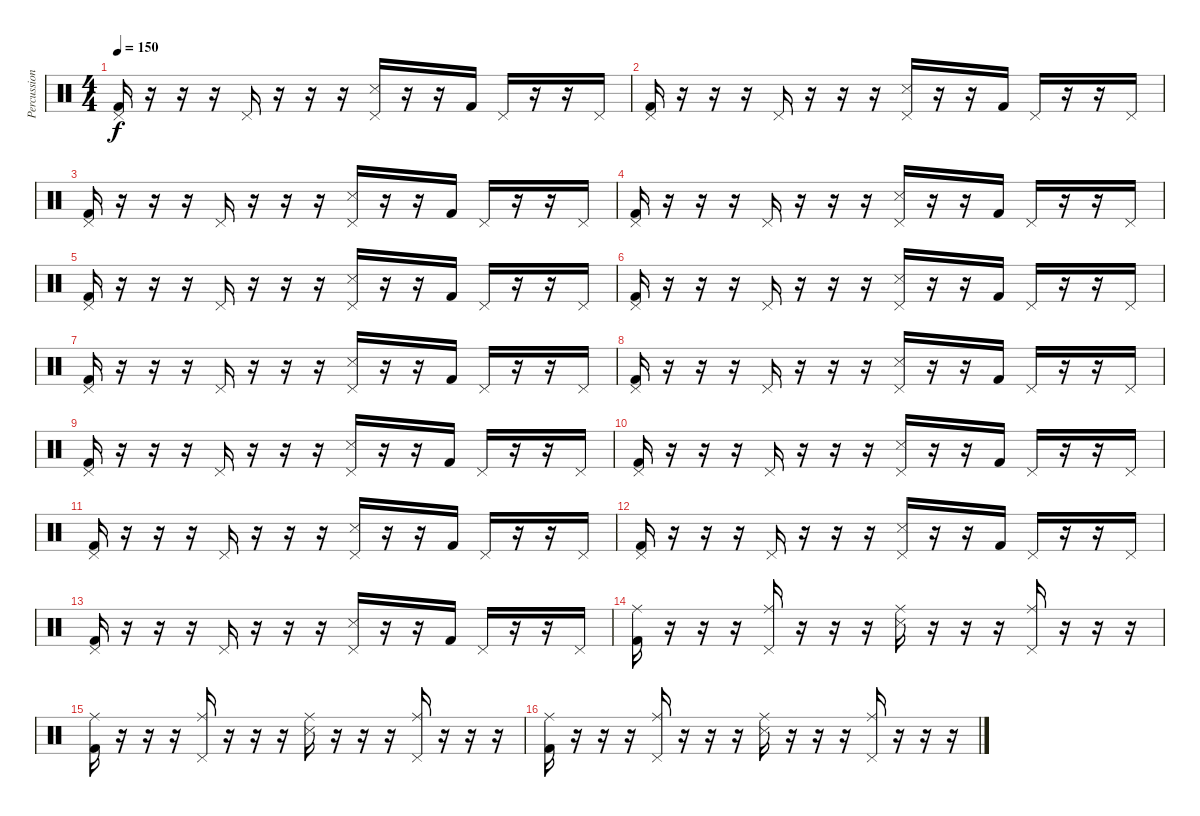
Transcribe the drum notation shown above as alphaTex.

\track ("Percussion" "Percussion") {instrument percussion}
\staff {score}
\articulation defaults
\ts (4 4)
\tempo 150
\clef neutral
\ks c
("Pedal Hi-Hat (hit)" "Kick (hit) 2").16{dy f} r.16 r.16 r.16 "Pedal Hi-Hat (hit)".16 r.16 r.16 r.16 ("Pedal Hi-Hat (hit)" "Snare (side stick) 3").16 r.16 r.16 "Kick (hit) 2".16 "Pedal Hi-Hat (hit)".16 r.16 r.16 "Pedal Hi-Hat (hit)".16 |
("Pedal Hi-Hat (hit)" "Kick (hit) 2").16 r.16 r.16 r.16 "Pedal Hi-Hat (hit)".16 r.16 r.16 r.16 ("Pedal Hi-Hat (hit)" "Snare (side stick) 3").16 r.16 r.16 "Kick (hit) 2".16 "Pedal Hi-Hat (hit)".16 r.16 r.16 "Pedal Hi-Hat (hit)".16 |
("Pedal Hi-Hat (hit)" "Kick (hit) 2").16 r.16 r.16 r.16 "Pedal Hi-Hat (hit)".16 r.16 r.16 r.16 ("Pedal Hi-Hat (hit)" "Snare (side stick) 3").16 r.16 r.16 "Kick (hit) 2".16 "Pedal Hi-Hat (hit)".16 r.16 r.16 "Pedal Hi-Hat (hit)".16 |
("Pedal Hi-Hat (hit)" "Kick (hit) 2").16 r.16 r.16 r.16 "Pedal Hi-Hat (hit)".16 r.16 r.16 r.16 ("Pedal Hi-Hat (hit)" "Snare (side stick) 3").16 r.16 r.16 "Kick (hit) 2".16 "Pedal Hi-Hat (hit)".16 r.16 r.16 "Pedal Hi-Hat (hit)".16 |
("Pedal Hi-Hat (hit)" "Kick (hit) 2").16 r.16 r.16 r.16 "Pedal Hi-Hat (hit)".16 r.16 r.16 r.16 ("Pedal Hi-Hat (hit)" "Snare (side stick) 3").16 r.16 r.16 "Kick (hit) 2".16 "Pedal Hi-Hat (hit)".16 r.16 r.16 "Pedal Hi-Hat (hit)".16 |
("Pedal Hi-Hat (hit)" "Kick (hit) 2").16 r.16 r.16 r.16 "Pedal Hi-Hat (hit)".16 r.16 r.16 r.16 ("Pedal Hi-Hat (hit)" "Snare (side stick) 3").16 r.16 r.16 "Kick (hit) 2".16 "Pedal Hi-Hat (hit)".16 r.16 r.16 "Pedal Hi-Hat (hit)".16 |
("Pedal Hi-Hat (hit)" "Kick (hit) 2").16 r.16 r.16 r.16 "Pedal Hi-Hat (hit)".16 r.16 r.16 r.16 ("Pedal Hi-Hat (hit)" "Snare (side stick) 3").16 r.16 r.16 "Kick (hit) 2".16 "Pedal Hi-Hat (hit)".16 r.16 r.16 "Pedal Hi-Hat (hit)".16 |
("Pedal Hi-Hat (hit)" "Kick (hit) 2").16 r.16 r.16 r.16 "Pedal Hi-Hat (hit)".16 r.16 r.16 r.16 ("Pedal Hi-Hat (hit)" "Snare (side stick) 3").16 r.16 r.16 "Kick (hit) 2".16 "Pedal Hi-Hat (hit)".16 r.16 r.16 "Pedal Hi-Hat (hit)".16 |
("Pedal Hi-Hat (hit)" "Kick (hit) 2").16 r.16 r.16 r.16 "Pedal Hi-Hat (hit)".16 r.16 r.16 r.16 ("Pedal Hi-Hat (hit)" "Snare (side stick) 3").16 r.16 r.16 "Kick (hit) 2".16 "Pedal Hi-Hat (hit)".16 r.16 r.16 "Pedal Hi-Hat (hit)".16 |
("Pedal Hi-Hat (hit)" "Kick (hit) 2").16 r.16 r.16 r.16 "Pedal Hi-Hat (hit)".16 r.16 r.16 r.16 ("Pedal Hi-Hat (hit)" "Snare (side stick) 3").16 r.16 r.16 "Kick (hit) 2".16 "Pedal Hi-Hat (hit)".16 r.16 r.16 "Pedal Hi-Hat (hit)".16 |
("Pedal Hi-Hat (hit)" "Kick (hit) 2").16 r.16 r.16 r.16 "Pedal Hi-Hat (hit)".16 r.16 r.16 r.16 ("Pedal Hi-Hat (hit)" "Snare (side stick) 3").16 r.16 r.16 "Kick (hit) 2".16 "Pedal Hi-Hat (hit)".16 r.16 r.16 "Pedal Hi-Hat (hit)".16 |
("Pedal Hi-Hat (hit)" "Kick (hit) 2").16 r.16 r.16 r.16 "Pedal Hi-Hat (hit)".16 r.16 r.16 r.16 ("Pedal Hi-Hat (hit)" "Snare (side stick) 3").16 r.16 r.16 "Kick (hit) 2".16 "Pedal Hi-Hat (hit)".16 r.16 r.16 "Pedal Hi-Hat (hit)".16 |
("Pedal Hi-Hat (hit)" "Kick (hit) 2").16 r.16 r.16 r.16 "Pedal Hi-Hat (hit)".16 r.16 r.16 r.16 ("Pedal Hi-Hat (hit)" "Snare (side stick) 3").16 r.16 r.16 "Kick (hit) 2".16 "Pedal Hi-Hat (hit)".16 r.16 r.16 "Pedal Hi-Hat (hit)".16 |
("Ride (middle)" "Kick (hit) 2").16 r.16 r.16 r.16 ("Ride (middle)" "Pedal Hi-Hat (hit)").16 r.16 r.16 r.16 ("Ride (middle)" "Snare (side stick) 3").16 r.16 r.16 r.16 ("Ride (middle)" "Pedal Hi-Hat (hit)").16 r.16 r.16 r.16 |
("Ride (middle)" "Kick (hit) 2").16 r.16 r.16 r.16 ("Ride (middle)" "Pedal Hi-Hat (hit)").16 r.16 r.16 r.16 ("Ride (middle)" "Snare (side stick) 3").16 r.16 r.16 r.16 ("Ride (middle)" "Pedal Hi-Hat (hit)").16 r.16 r.16 r.16 |
("Ride (middle)" "Kick (hit) 2").16 r.16 r.16 r.16 ("Ride (middle)" "Pedal Hi-Hat (hit)").16 r.16 r.16 r.16 ("Ride (middle)" "Snare (side stick) 3").16 r.16 r.16 r.16 ("Ride (middle)" "Pedal Hi-Hat (hit)").16 r.16 r.16 r.16
